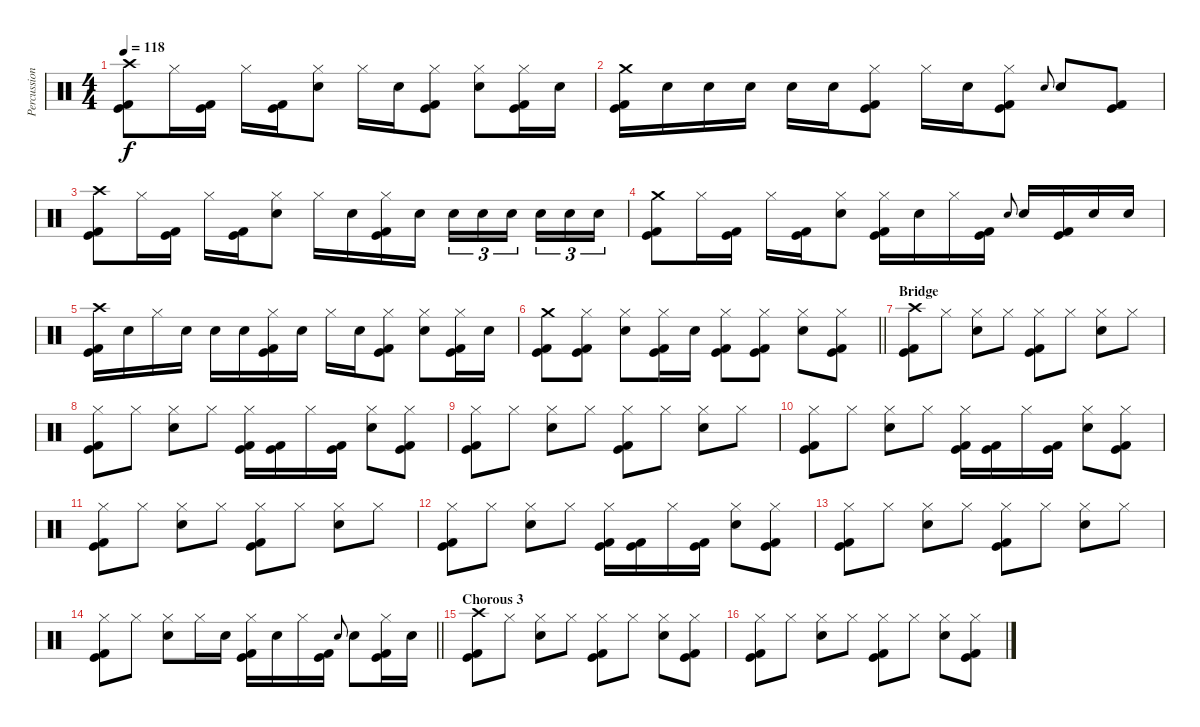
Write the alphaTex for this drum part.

\track ("Percussion" "Percussion") {instrument percussion}
\staff {score}
\articulation defaults
\ts (4 4)
\tempo 118
\clef neutral
\ks c
("Crash high (hit)" "Kick (hit)" "Kick (hit) 2").8{dy f} "Hi-Hat (closed)".16 ("Kick (hit)" "Kick (hit) 2").16 "Hi-Hat (closed)".16 ("Kick (hit)" "Kick (hit) 2").16 ("Hi-Hat (closed)" "Electric Snare (hit)").8 "Hi-Hat (closed)".16 "Electric Snare (hit)".16 ("Hi-Hat (closed)" "Kick (hit)" "Kick (hit) 2").8 ("Hi-Hat (closed)" "Electric Snare (hit)").8 ("Hi-Hat (closed)" "Kick (hit)" "Kick (hit) 2").16 "Electric Snare (hit)".16 |
("Crash medium (hit)" "Kick (hit)" "Kick (hit) 2").16 "Electric Snare (hit)".16 "Electric Snare (hit)".16 "Electric Snare (hit)".16 "Electric Snare (hit)".16 "Electric Snare (hit)".16 ("Hi-Hat (closed)" "Kick (hit)" "Kick (hit) 2").8 "Hi-Hat (closed)".16 "Electric Snare (hit)".16 ("Hi-Hat (closed)" "Kick (hit)" "Kick (hit) 2").8 "Electric Snare (hit)".8{gr onbeat} "Electric Snare (hit)".8 ("Kick (hit)" "Kick (hit) 2").8 |
("Crash high (hit)" "Kick (hit)" "Kick (hit) 2").8 "Hi-Hat (closed)".16 ("Kick (hit)" "Kick (hit) 2").16 "Hi-Hat (closed)".16 ("Kick (hit)" "Kick (hit) 2").16 ("Hi-Hat (closed)" "Electric Snare (hit)").8 "Hi-Hat (closed)".16 "Electric Snare (hit)".16 ("Hi-Hat (closed)" "Kick (hit)" "Kick (hit) 2").16 "Electric Snare (hit)".16 "Electric Snare (hit)".16{tu (3 2)} "Electric Snare (hit)".16{tu (3 2)} "Electric Snare (hit)".16{tu (3 2) beam splitsecondary} "Electric Snare (hit)".16{tu (3 2)} "Electric Snare (hit)".16{tu (3 2)} "Electric Snare (hit)".16{tu (3 2)} |
("Crash medium (hit)" "Kick (hit)" "Kick (hit) 2").8 "Hi-Hat (closed)".16 ("Kick (hit)" "Kick (hit) 2").16 "Hi-Hat (closed)".16 ("Kick (hit)" "Kick (hit) 2").16 ("Hi-Hat (closed)" "Electric Snare (hit)").8 ("Hi-Hat (closed)" "Kick (hit)" "Kick (hit) 2").16 "Electric Snare (hit)".16 "Hi-Hat (closed)".16 ("Kick (hit)" "Kick (hit) 2").16 "Electric Snare (hit)".8{gr onbeat} "Electric Snare (hit)".16 ("Kick (hit)" "Kick (hit) 2").16 "Electric Snare (hit)".16 "Electric Snare (hit)".16 |
("Crash high (hit)" "Kick (hit)" "Kick (hit) 2").16 "Electric Snare (hit)".16 "Hi-Hat (closed)".16 "Electric Snare (hit)".16 "Electric Snare (hit)".16 "Electric Snare (hit)".16 ("Hi-Hat (closed)" "Kick (hit)" "Kick (hit) 2").16 "Electric Snare (hit)".16 "Hi-Hat (closed)".16 "Electric Snare (hit)".16 ("Hi-Hat (closed)" "Kick (hit)" "Kick (hit) 2").8 ("Hi-Hat (closed)" "Electric Snare (hit)").8 ("Hi-Hat (closed)" "Kick (hit)" "Kick (hit) 2").16 "Electric Snare (hit)".16 |
\barLineRight lightlight
("Crash medium (hit)" "Kick (hit)" "Kick (hit) 2").8 ("Hi-Hat (closed)" "Kick (hit)" "Kick (hit) 2").8 ("Hi-Hat (closed)" "Electric Snare (hit)").8 ("Hi-Hat (closed)" "Kick (hit)" "Kick (hit) 2").16 "Electric Snare (hit)".16 ("Hi-Hat (closed)" "Kick (hit)" "Kick (hit) 2").8 ("Hi-Hat (closed)" "Kick (hit)" "Kick (hit) 2").8 ("Hi-Hat (closed)" "Electric Snare (hit)").8 ("Hi-Hat (closed)" "Kick (hit)" "Kick (hit) 2").8 |
\section ("" "Bridge")
("Crash high (hit)" "Kick (hit)" "Kick (hit) 2").8 "Hi-Hat (closed)".8 ("Hi-Hat (closed)" "Electric Snare (hit)").8 "Hi-Hat (closed)".8 ("Hi-Hat (closed)" "Kick (hit)" "Kick (hit) 2").8 "Hi-Hat (closed)".8 ("Hi-Hat (closed)" "Electric Snare (hit)").8 "Hi-Hat (closed)".8 |
("Hi-Hat (closed)" "Kick (hit)" "Kick (hit) 2").8 "Hi-Hat (closed)".8 ("Hi-Hat (closed)" "Electric Snare (hit)").8 "Hi-Hat (closed)".8 ("Hi-Hat (closed)" "Kick (hit)" "Kick (hit) 2").16 ("Kick (hit)" "Kick (hit) 2").16 "Hi-Hat (closed)".16 ("Kick (hit)" "Kick (hit) 2").16 ("Hi-Hat (closed)" "Electric Snare (hit)").8 ("Hi-Hat (closed)" "Kick (hit)" "Kick (hit) 2").8 |
("Hi-Hat (closed)" "Kick (hit)" "Kick (hit) 2").8 "Hi-Hat (closed)".8 ("Hi-Hat (closed)" "Electric Snare (hit)").8 "Hi-Hat (closed)".8 ("Hi-Hat (closed)" "Kick (hit)" "Kick (hit) 2").8 "Hi-Hat (closed)".8 ("Hi-Hat (closed)" "Electric Snare (hit)").8 "Hi-Hat (closed)".8 |
("Hi-Hat (closed)" "Kick (hit)" "Kick (hit) 2").8 "Hi-Hat (closed)".8 ("Hi-Hat (closed)" "Electric Snare (hit)").8 "Hi-Hat (closed)".8 ("Hi-Hat (closed)" "Kick (hit)" "Kick (hit) 2").16 ("Kick (hit)" "Kick (hit) 2").16 "Hi-Hat (closed)".16 ("Kick (hit)" "Kick (hit) 2").16 ("Hi-Hat (closed)" "Electric Snare (hit)").8 ("Hi-Hat (closed)" "Kick (hit)" "Kick (hit) 2").8 |
("Hi-Hat (closed)" "Kick (hit)" "Kick (hit) 2").8 "Hi-Hat (closed)".8 ("Hi-Hat (closed)" "Electric Snare (hit)").8 "Hi-Hat (closed)".8 ("Hi-Hat (closed)" "Kick (hit)" "Kick (hit) 2").8 "Hi-Hat (closed)".8 ("Hi-Hat (closed)" "Electric Snare (hit)").8 "Hi-Hat (closed)".8 |
("Hi-Hat (closed)" "Kick (hit)" "Kick (hit) 2").8 "Hi-Hat (closed)".8 ("Hi-Hat (closed)" "Electric Snare (hit)").8 "Hi-Hat (closed)".8 ("Hi-Hat (closed)" "Kick (hit)" "Kick (hit) 2").16 ("Kick (hit)" "Kick (hit) 2").16 "Hi-Hat (closed)".16 ("Kick (hit)" "Kick (hit) 2").16 ("Hi-Hat (closed)" "Electric Snare (hit)").8 ("Hi-Hat (closed)" "Kick (hit)" "Kick (hit) 2").8 |
("Hi-Hat (closed)" "Kick (hit)" "Kick (hit) 2").8 "Hi-Hat (closed)".8 ("Hi-Hat (closed)" "Electric Snare (hit)").8 "Hi-Hat (closed)".8 ("Hi-Hat (closed)" "Kick (hit)" "Kick (hit) 2").8 "Hi-Hat (closed)".8 ("Hi-Hat (closed)" "Electric Snare (hit)").8 "Hi-Hat (closed)".8 |
\barLineRight lightlight
("Hi-Hat (closed)" "Kick (hit)" "Kick (hit) 2").8 "Hi-Hat (closed)".8 ("Hi-Hat (closed)" "Electric Snare (hit)").8 "Hi-Hat (closed)".16 "Electric Snare (hit)".16 ("Hi-Hat (closed)" "Kick (hit)" "Kick (hit) 2").16 "Electric Snare (hit)".16 "Hi-Hat (closed)".16 ("Kick (hit)" "Kick (hit) 2").16 "Electric Snare (hit)".8{gr onbeat} "Electric Snare (hit)".8 ("Hi-Hat (closed)" "Kick (hit)" "Kick (hit) 2").16 "Electric Snare (hit)".16 |
\section ("" "Chorous 3")
("Crash high (hit)" "Kick (hit)" "Kick (hit) 2").8 "Hi-Hat (closed)".8 ("Hi-Hat (closed)" "Electric Snare (hit)").8 "Hi-Hat (closed)".8 ("Hi-Hat (closed)" "Kick (hit)" "Kick (hit) 2").8 "Hi-Hat (closed)".8 ("Hi-Hat (closed)" "Electric Snare (hit)").8 ("Hi-Hat (closed)" "Kick (hit)" "Kick (hit) 2").8 |
("Hi-Hat (closed)" "Kick (hit)" "Kick (hit) 2").8 "Hi-Hat (closed)".8 ("Hi-Hat (closed)" "Electric Snare (hit)").8 "Hi-Hat (closed)".8 ("Hi-Hat (closed)" "Kick (hit)" "Kick (hit) 2").8 "Hi-Hat (closed)".8 ("Hi-Hat (closed)" "Electric Snare (hit)").8 ("Hi-Hat (closed)" "Kick (hit)" "Kick (hit) 2").8
